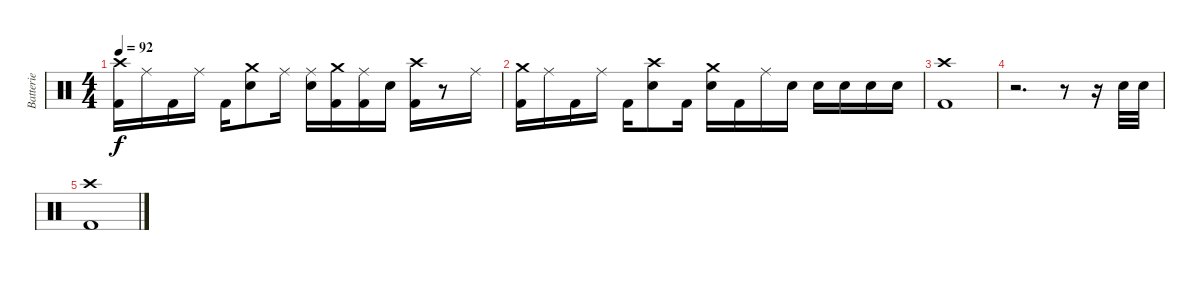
\track ("Batterie" "Batterie") {instrument percussion}
\staff {score}
\articulation defaults
\ts (4 4)
\tempo 92
\clef neutral
\ks c
("Crash high (hit)" "Kick (hit) 2").16{dy f} "Ride (middle)".16 "Kick (hit) 2".16 "Ride (middle)".16 "Kick (hit) 2".16 ("Crash medium (hit)" "Electric Snare (hit)").8 "Ride (middle)".16 ("Ride (middle)" "Electric Snare (hit)").16 ("Crash medium (hit)" "Kick (hit) 2").16 ("Ride (middle)" "Kick (hit) 2").16 "Electric Snare (hit)".16 ("Crash high (hit)" "Kick (hit) 2").16 r.8 "Ride (middle)".16 |
("Crash medium (hit)" "Kick (hit) 2").16 "Ride (middle)".16 "Kick (hit) 2".16 "Ride (middle)".16 "Kick (hit) 2".16 ("Crash high (hit)" "Electric Snare (hit)").8 "Kick (hit) 2".16 ("Crash medium (hit)" "Electric Snare (hit)").16 "Kick (hit) 2".16 "Ride (middle)".16 "Electric Snare (hit)".16 "Electric Snare (hit)".16 "Electric Snare (hit)".16 "Electric Snare (hit)".16 "Electric Snare (hit)".16 |
("Crash high (hit)" "Kick (hit) 2").1 |
r.2{d} r.8 r.16 "Electric Snare (hit)".32 "Electric Snare (hit)".32 |
("Crash high (hit)" "Kick (hit) 2").1{volume 0}
